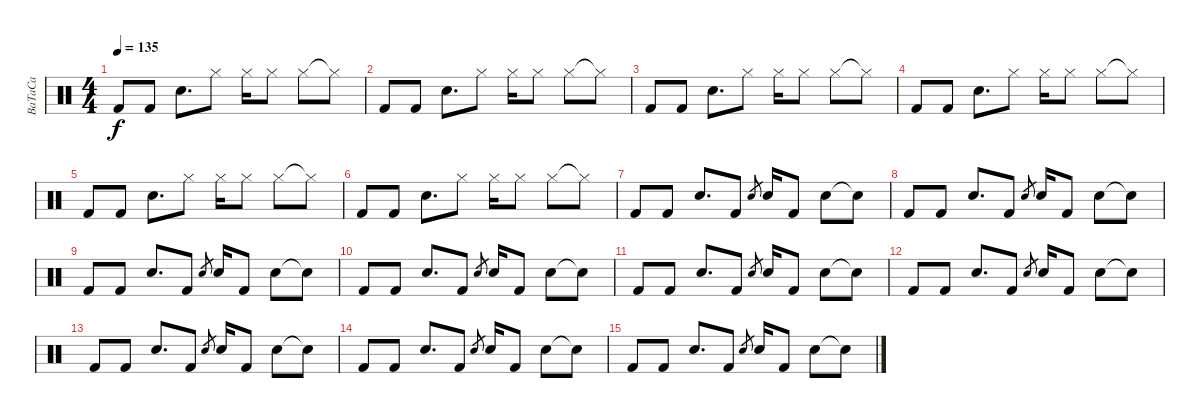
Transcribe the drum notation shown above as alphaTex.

\track ("BaTaCa" "BaTaCa") {instrument percussion}
\staff {score}
\articulation defaults
\ts (4 4)
\tempo 135
\clef neutral
\ks c "Kick (hit) 2".8{dy f} "Kick (hit) 2".8 "Electric Snare (hit)".8{d} "Hi-Hat (closed)".8 "Hi-Hat (closed)".16 "Hi-Hat (closed)".8 "Hi-Hat (closed)".8 "Hi-Hat (closed)"{t}.8
|
"Kick (hit) 2".8 "Kick (hit) 2".8 "Electric Snare (hit)".8{d} "Hi-Hat (closed)".8 "Hi-Hat (closed)".16 "Hi-Hat (closed)".8 "Hi-Hat (closed)".8 "Hi-Hat (closed)"{t}.8 |
"Kick (hit) 2".8 "Kick (hit) 2".8 "Electric Snare (hit)".8{d} "Hi-Hat (closed)".8 "Hi-Hat (closed)".16 "Hi-Hat (closed)".8 "Hi-Hat (closed)".8 "Hi-Hat (closed)"{t}.8 |
"Kick (hit) 2".8 "Kick (hit) 2".8 "Electric Snare (hit)".8{d} "Hi-Hat (closed)".8 "Hi-Hat (closed)".16 "Hi-Hat (closed)".8 "Hi-Hat (closed)".8 "Hi-Hat (closed)"{t}.8 |
"Kick (hit) 2".8 "Kick (hit) 2".8 "Electric Snare (hit)".8{d} "Hi-Hat (closed)".8 "Hi-Hat (closed)".16 "Hi-Hat (closed)".8 "Hi-Hat (closed)".8 "Hi-Hat (closed)"{t}.8 |
"Kick (hit) 2".8 "Kick (hit) 2".8 "Electric Snare (hit)".8{d} "Hi-Hat (closed)".8 "Hi-Hat (closed)".16 "Hi-Hat (closed)".8 "Hi-Hat (closed)".8 "Hi-Hat (closed)"{t}.8 |
"Kick (hit) 2".8 "Kick (hit) 2".8 "Electric Snare (hit)".8{d} "Kick (hit) 2".8 "Electric Snare (hit)".8{gr} "Electric Snare (hit)".16 "Kick (hit) 2".8 "Electric Snare (hit)".8 "Electric Snare (hit)"{t}.8 |
"Kick (hit) 2".8 "Kick (hit) 2".8 "Electric Snare (hit)".8{d} "Kick (hit) 2".8 "Electric Snare (hit)".8{gr} "Electric Snare (hit)".16 "Kick (hit) 2".8 "Electric Snare (hit)".8 "Electric Snare (hit)"{t}.8 |
"Kick (hit) 2".8 "Kick (hit) 2".8 "Electric Snare (hit)".8{d} "Kick (hit) 2".8 "Electric Snare (hit)".8{gr} "Electric Snare (hit)".16 "Kick (hit) 2".8 "Electric Snare (hit)".8 "Electric Snare (hit)"{t}.8 |
"Kick (hit) 2".8 "Kick (hit) 2".8 "Electric Snare (hit)".8{d} "Kick (hit) 2".8 "Electric Snare (hit)".8{gr} "Electric Snare (hit)".16 "Kick (hit) 2".8 "Electric Snare (hit)".8 "Electric Snare (hit)"{t}.8 |
"Kick (hit) 2".8 "Kick (hit) 2".8 "Electric Snare (hit)".8{d} "Kick (hit) 2".8 "Electric Snare (hit)".8{gr} "Electric Snare (hit)".16 "Kick (hit) 2".8 "Electric Snare (hit)".8 "Electric Snare (hit)"{t}.8 |
"Kick (hit) 2".8 "Kick (hit) 2".8 "Electric Snare (hit)".8{d} "Kick (hit) 2".8 "Electric Snare (hit)".8{gr} "Electric Snare (hit)".16 "Kick (hit) 2".8 "Electric Snare (hit)".8 "Electric Snare (hit)"{t}.8 |
"Kick (hit) 2".8 "Kick (hit) 2".8 "Electric Snare (hit)".8{d} "Kick (hit) 2".8 "Electric Snare (hit)".8{gr} "Electric Snare (hit)".16 "Kick (hit) 2".8 "Electric Snare (hit)".8 "Electric Snare (hit)"{t}.8 |
"Kick (hit) 2".8 "Kick (hit) 2".8 "Electric Snare (hit)".8{d} "Kick (hit) 2".8 "Electric Snare (hit)".8{gr} "Electric Snare (hit)".16 "Kick (hit) 2".8 "Electric Snare (hit)".8 "Electric Snare (hit)"{t}.8 |
"Kick (hit) 2".8 "Kick (hit) 2".8 "Electric Snare (hit)".8{d} "Kick (hit) 2".8 "Electric Snare (hit)".8{gr} "Electric Snare (hit)".16 "Kick (hit) 2".8 "Electric Snare (hit)".8 "Electric Snare (hit)"{t}.8
